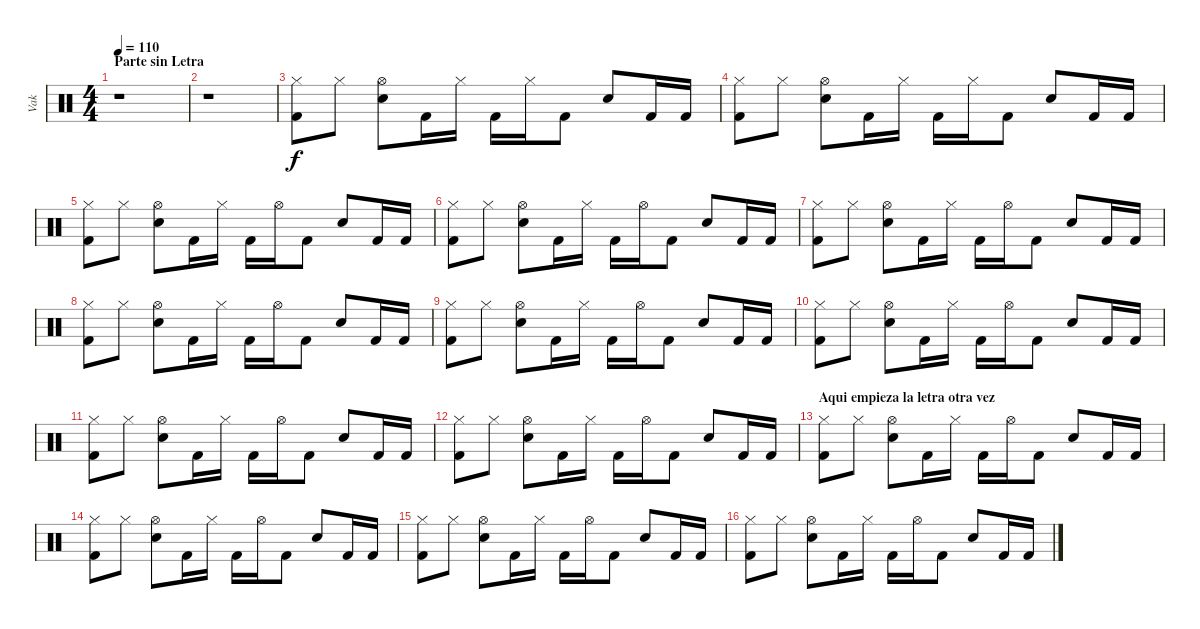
\track ("Vak" "Vak") {instrument percussion}
\staff {score}
\articulation defaults
\ts (4 4)
\section ("" "Parte sin Letra")
\tempo 110
\clef neutral
\ks c
r.1{dy f} |
r.1 |
("Kick (hit) 2" "Hi-Hat (closed)").8 "Hi-Hat (closed)".8 ("Snare (hit) 2" "Hi-Hat (open)").8 "Kick (hit) 2".16 "Hi-Hat (closed)".16 "Kick (hit) 2".16 "Hi-Hat (closed)".16 "Kick (hit) 2".8 "Snare (hit) 2".8 "Kick (hit) 2".16 "Kick (hit) 2".16 |
("Kick (hit) 2" "Hi-Hat (closed)").8 "Hi-Hat (closed)".8 ("Snare (hit) 2" "Hi-Hat (open)").8 "Kick (hit) 2".16 "Hi-Hat (closed)".16 "Kick (hit) 2".16 "Hi-Hat (closed)".16 "Kick (hit) 2".8 "Snare (hit) 2".8 "Kick (hit) 2".16 "Kick (hit) 2".16 |
("Kick (hit) 2" "Hi-Hat (closed)").8 "Hi-Hat (closed)".8 ("Snare (hit) 2" "Hi-Hat (open)").8 "Kick (hit) 2".16 "Hi-Hat (closed)".16 "Kick (hit) 2".16 "Hi-Hat (open)".16 "Kick (hit) 2".8 "Snare (hit) 2".8 "Kick (hit) 2".16 "Kick (hit) 2".16 |
("Kick (hit) 2" "Hi-Hat (closed)").8 "Hi-Hat (closed)".8 ("Snare (hit) 2" "Hi-Hat (open)").8 "Kick (hit) 2".16 "Hi-Hat (closed)".16 "Kick (hit) 2".16 "Hi-Hat (open)".16 "Kick (hit) 2".8 "Snare (hit) 2".8 "Kick (hit) 2".16 "Kick (hit) 2".16 |
("Kick (hit) 2" "Hi-Hat (closed)").8 "Hi-Hat (closed)".8 ("Snare (hit) 2" "Hi-Hat (open)").8 "Kick (hit) 2".16 "Hi-Hat (closed)".16 "Kick (hit) 2".16 "Hi-Hat (open)".16 "Kick (hit) 2".8 "Snare (hit) 2".8 "Kick (hit) 2".16 "Kick (hit) 2".16 |
("Kick (hit) 2" "Hi-Hat (closed)").8 "Hi-Hat (closed)".8 ("Snare (hit) 2" "Hi-Hat (open)").8 "Kick (hit) 2".16 "Hi-Hat (closed)".16 "Kick (hit) 2".16 "Hi-Hat (open)".16 "Kick (hit) 2".8 "Snare (hit) 2".8 "Kick (hit) 2".16 "Kick (hit) 2".16 |
("Kick (hit) 2" "Hi-Hat (closed)").8 "Hi-Hat (closed)".8 ("Snare (hit) 2" "Hi-Hat (open)").8 "Kick (hit) 2".16 "Hi-Hat (closed)".16 "Kick (hit) 2".16 "Hi-Hat (open)".16 "Kick (hit) 2".8 "Snare (hit) 2".8 "Kick (hit) 2".16 "Kick (hit) 2".16 |
("Kick (hit) 2" "Hi-Hat (closed)").8 "Hi-Hat (closed)".8 ("Snare (hit) 2" "Hi-Hat (open)").8 "Kick (hit) 2".16 "Hi-Hat (closed)".16 "Kick (hit) 2".16 "Hi-Hat (open)".16 "Kick (hit) 2".8 "Snare (hit) 2".8 "Kick (hit) 2".16 "Kick (hit) 2".16 |
("Kick (hit) 2" "Hi-Hat (closed)").8 "Hi-Hat (closed)".8 ("Snare (hit) 2" "Hi-Hat (open)").8 "Kick (hit) 2".16 "Hi-Hat (closed)".16 "Kick (hit) 2".16 "Hi-Hat (open)".16 "Kick (hit) 2".8 "Snare (hit) 2".8 "Kick (hit) 2".16 "Kick (hit) 2".16 |
("Kick (hit) 2" "Hi-Hat (closed)").8 "Hi-Hat (closed)".8 ("Snare (hit) 2" "Hi-Hat (open)").8 "Kick (hit) 2".16 "Hi-Hat (closed)".16 "Kick (hit) 2".16 "Hi-Hat (open)".16 "Kick (hit) 2".8 "Snare (hit) 2".8 "Kick (hit) 2".16 "Kick (hit) 2".16 |
\section ("" "Aqui empieza la letra otra vez")
("Kick (hit) 2" "Hi-Hat (closed)").8 "Hi-Hat (closed)".8 ("Snare (hit) 2" "Hi-Hat (open)").8 "Kick (hit) 2".16 "Hi-Hat (closed)".16 "Kick (hit) 2".16 "Hi-Hat (open)".16 "Kick (hit) 2".8 "Snare (hit) 2".8 "Kick (hit) 2".16 "Kick (hit) 2".16 |
("Kick (hit) 2" "Hi-Hat (closed)").8 "Hi-Hat (closed)".8 ("Snare (hit) 2" "Hi-Hat (open)").8 "Kick (hit) 2".16 "Hi-Hat (closed)".16 "Kick (hit) 2".16 "Hi-Hat (open)".16 "Kick (hit) 2".8 "Snare (hit) 2".8 "Kick (hit) 2".16 "Kick (hit) 2".16 |
("Kick (hit) 2" "Hi-Hat (closed)").8 "Hi-Hat (closed)".8 ("Snare (hit) 2" "Hi-Hat (open)").8 "Kick (hit) 2".16 "Hi-Hat (closed)".16 "Kick (hit) 2".16 "Hi-Hat (open)".16 "Kick (hit) 2".8 "Snare (hit) 2".8 "Kick (hit) 2".16 "Kick (hit) 2".16 |
("Kick (hit) 2" "Hi-Hat (closed)").8 "Hi-Hat (closed)".8 ("Snare (hit) 2" "Hi-Hat (open)").8 "Kick (hit) 2".16 "Hi-Hat (closed)".16 "Kick (hit) 2".16 "Hi-Hat (open)".16 "Kick (hit) 2".8 "Snare (hit) 2".8 "Kick (hit) 2".16 "Kick (hit) 2".16
